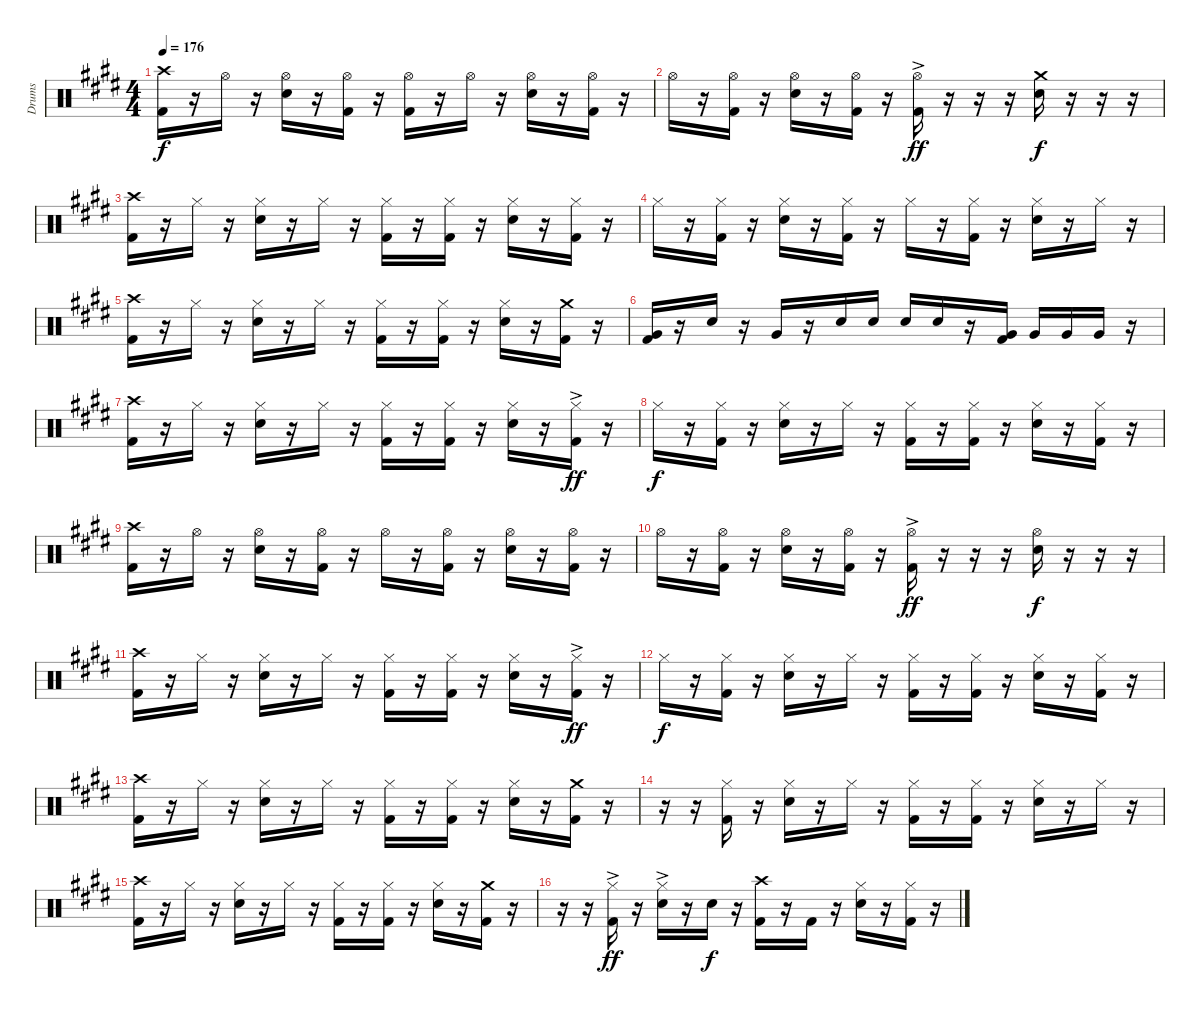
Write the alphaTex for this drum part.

\track ("Drums" "Drums") {instrument percussion}
\staff {score}
\articulation defaults
\ts (4 4)
\tempo 176
\clef neutral
\ks e
("Crash high (hit)" "Kick (hit) 2").16{dy f} r.16 "Hi-Hat (open)".16 r.16 ("Hi-Hat (open)" "Electric Snare (hit)").16 r.16 ("Hi-Hat (open)" "Kick (hit) 2").16 r.16 ("Hi-Hat (open)" "Kick (hit) 2").16 r.16 "Hi-Hat (open)".16 r.16 ("Hi-Hat (open)" "Electric Snare (hit)").16 r.16 ("Hi-Hat (open)" "Kick (hit) 2").16 r.16 |
"Hi-Hat (open)".16 r.16 ("Hi-Hat (open)" "Kick (hit) 2").16 r.16 ("Hi-Hat (open)" "Electric Snare (hit)").16 r.16 ("Hi-Hat (open)" "Kick (hit) 2").16 r.16 ("Hi-Hat (open)"{ac} "Kick (hit) 2").16{dy ff} r.16 r.16 r.16 ("Crash medium (hit)" "Electric Snare (hit)").16{dy f} r.16 r.16 r.16 |
("Crash high (hit)" "Kick (hit) 2").16 r.16 "Hi-Hat (closed)".16 r.16 ("Hi-Hat (closed)" "Electric Snare (hit)").16 r.16 "Hi-Hat (closed)".16 r.16 ("Hi-Hat (closed)" "Kick (hit) 2").16 r.16 ("Hi-Hat (closed)" "Kick (hit) 2").16 r.16 ("Hi-Hat (closed)" "Electric Snare (hit)").16 r.16 ("Hi-Hat (closed)" "Kick (hit) 2").16 r.16 |
"Hi-Hat (closed)".16 r.16 ("Hi-Hat (closed)" "Kick (hit) 2").16 r.16 ("Hi-Hat (closed)" "Electric Snare (hit)").16 r.16 ("Hi-Hat (closed)" "Kick (hit) 2").16 r.16 "Hi-Hat (closed)".16 r.16 ("Hi-Hat (closed)" "Kick (hit) 2").16 r.16 ("Hi-Hat (closed)" "Electric Snare (hit)").16 r.16 "Hi-Hat (closed)".16 r.16 |
("Crash high (hit)" "Kick (hit) 2").16 r.16 "Hi-Hat (closed)".16 r.16 ("Hi-Hat (closed)" "Electric Snare (hit)").16 r.16 "Hi-Hat (closed)".16 r.16 ("Hi-Hat (closed)" "Kick (hit) 2").16 r.16 ("Hi-Hat (closed)" "Kick (hit) 2").16 r.16 ("Hi-Hat (closed)" "Electric Snare (hit)").16 r.16 ("Crash medium (hit)" "Kick (hit) 2").16 r.16 |
("Very Low Tom (hit)" "Kick (hit) 2").16 r.16 "Electric Snare (hit)".16 r.16 "Very Low Tom (hit)".16 r.16 "Electric Snare (hit)".16 "Electric Snare (hit)".16 "Electric Snare (hit)".16 "Electric Snare (hit)".16 r.16 ("Very Low Tom (hit)" "Kick (hit) 2").16 "Very Low Tom (hit)".16 "Very Low Tom (hit)".16 "Very Low Tom (hit)".16 r.16 |
("Crash high (hit)" "Kick (hit) 2").16 r.16 "Hi-Hat (closed)".16 r.16 ("Hi-Hat (closed)" "Electric Snare (hit)").16 r.16 "Hi-Hat (closed)".16 r.16 ("Hi-Hat (closed)" "Kick (hit) 2").16 r.16 ("Hi-Hat (closed)" "Kick (hit) 2").16 r.16 ("Hi-Hat (closed)" "Electric Snare (hit)").16 r.16 ("Hi-Hat (closed)"{ac} "Kick (hit) 2").16{dy ff} r.16 |
"Hi-Hat (closed)".16{dy f} r.16 ("Hi-Hat (closed)" "Kick (hit) 2").16 r.16 ("Hi-Hat (closed)" "Electric Snare (hit)").16 r.16 "Hi-Hat (closed)".16 r.16 ("Hi-Hat (closed)" "Kick (hit) 2").16 r.16 ("Hi-Hat (closed)" "Kick (hit) 2").16 r.16 ("Hi-Hat (closed)" "Electric Snare (hit)").16 r.16 ("Hi-Hat (closed)" "Kick (hit) 2").16 r.16 |
("Crash high (hit)" "Kick (hit) 2").16 r.16 "Hi-Hat (open)".16 r.16 ("Hi-Hat (open)" "Electric Snare (hit)").16 r.16 ("Hi-Hat (open)" "Kick (hit) 2").16 r.16 "Hi-Hat (open)".16 r.16 ("Hi-Hat (open)" "Kick (hit) 2").16 r.16 ("Hi-Hat (open)" "Electric Snare (hit)").16 r.16 ("Hi-Hat (open)" "Kick (hit) 2").16 r.16 |
"Hi-Hat (open)".16 r.16 ("Hi-Hat (open)" "Kick (hit) 2").16 r.16 ("Hi-Hat (open)" "Electric Snare (hit)").16 r.16 ("Hi-Hat (open)" "Kick (hit) 2").16 r.16 ("Hi-Hat (open)"{ac} "Kick (hit) 2").16{dy ff} r.16 r.16 r.16 ("Hi-Hat (open)" "Electric Snare (hit)").16{dy f} r.16 r.16 r.16 |
("Crash high (hit)" "Kick (hit) 2").16 r.16 "Hi-Hat (closed)".16 r.16 ("Hi-Hat (closed)" "Electric Snare (hit)").16 r.16 "Hi-Hat (closed)".16 r.16 ("Hi-Hat (closed)" "Kick (hit) 2").16 r.16 ("Hi-Hat (closed)" "Kick (hit) 2").16 r.16 ("Hi-Hat (closed)" "Electric Snare (hit)").16 r.16 ("Hi-Hat (closed)"{ac} "Kick (hit) 2").16{dy ff} r.16 |
"Hi-Hat (closed)".16{dy f} r.16 ("Hi-Hat (closed)" "Kick (hit) 2").16 r.16 ("Hi-Hat (closed)" "Electric Snare (hit)").16 r.16 "Hi-Hat (closed)".16 r.16 ("Hi-Hat (closed)" "Kick (hit) 2").16 r.16 ("Hi-Hat (closed)" "Kick (hit) 2").16 r.16 ("Hi-Hat (closed)" "Electric Snare (hit)").16 r.16 ("Hi-Hat (closed)" "Kick (hit) 2").16 r.16 |
("Crash high (hit)" "Kick (hit) 2").16 r.16 "Hi-Hat (closed)".16 r.16 ("Hi-Hat (closed)" "Electric Snare (hit)").16 r.16 "Hi-Hat (closed)".16 r.16 ("Hi-Hat (closed)" "Kick (hit) 2").16 r.16 ("Hi-Hat (closed)" "Kick (hit) 2").16 r.16 ("Hi-Hat (closed)" "Electric Snare (hit)").16 r.16 ("Crash medium (hit)" "Kick (hit) 2").16 r.16 |
r.16 r.16 ("Hi-Hat (closed)" "Kick (hit) 2").16 r.16 ("Hi-Hat (closed)" "Electric Snare (hit)").16 r.16 "Hi-Hat (closed)".16 r.16 ("Hi-Hat (closed)" "Kick (hit) 2").16 r.16 ("Hi-Hat (closed)" "Kick (hit) 2").16 r.16 ("Hi-Hat (closed)" "Electric Snare (hit)").16 r.16 "Hi-Hat (closed)".16 r.16 |
("Crash high (hit)" "Kick (hit) 2").16 r.16 "Hi-Hat (closed)".16 r.16 ("Hi-Hat (closed)" "Electric Snare (hit)").16 r.16 "Hi-Hat (closed)".16 r.16 ("Hi-Hat (closed)" "Kick (hit) 2").16 r.16 ("Hi-Hat (closed)" "Kick (hit) 2").16 r.16 ("Hi-Hat (closed)" "Electric Snare (hit)").16 r.16 ("Crash medium (hit)" "Kick (hit) 2").16 r.16 |
r.16 r.16 ("Hi-Hat (closed)"{ac} "Kick (hit) 2").16{dy ff} r.16 ("Hi-Hat (closed)"{ac} "Electric Snare (hit)").16 r.16 "Electric Snare (hit)".16{dy f} r.16 ("Crash high (hit)" "Kick (hit) 2").16 r.16 "Kick (hit) 2".16 r.16 ("Hi-Hat (closed)" "Electric Snare (hit)").16 r.16 ("Hi-Hat (closed)" "Kick (hit) 2").16 r.16
